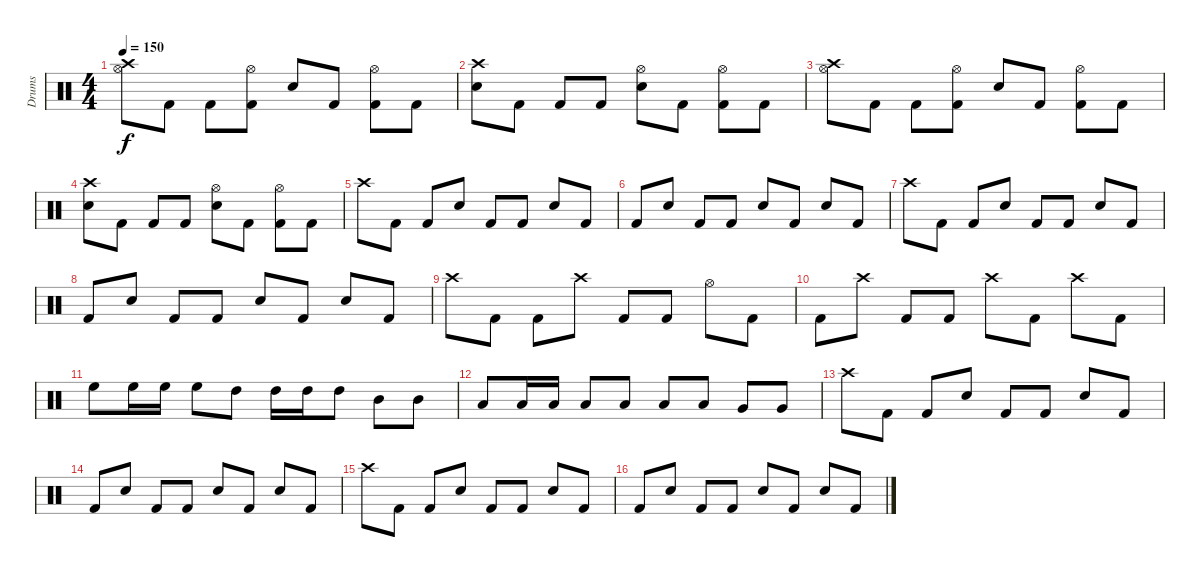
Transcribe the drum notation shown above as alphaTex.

\track ("Drums" "Drums") {instrument percussion}
\staff {score}
\articulation defaults
\ts (4 4)
\tempo 150
\clef neutral
\ks c
("Hi-Hat (open)" "Crash high (hit)").8{dy f} "Kick (hit) 2".8 "Kick (hit) 2".8 ("Hi-Hat (open)" "Kick (hit) 2").8 "Snare (hit) 2".8 "Kick (hit) 2".8 ("Hi-Hat (open)" "Kick (hit) 2").8 "Kick (hit) 2".8 |
("Snare (hit) 2" "Crash high (hit)").8 "Kick (hit) 2".8 "Kick (hit) 2".8 "Kick (hit) 2".8 ("Hi-Hat (open)" "Snare (hit) 2").8 "Kick (hit) 2".8 ("Hi-Hat (open)" "Kick (hit) 2").8 "Kick (hit) 2".8 |
("Hi-Hat (open)" "Crash high (hit)").8 "Kick (hit) 2".8 "Kick (hit) 2".8 ("Hi-Hat (open)" "Kick (hit) 2").8 "Snare (hit) 2".8 "Kick (hit) 2".8 ("Hi-Hat (open)" "Kick (hit) 2").8 "Kick (hit) 2".8 |
("Snare (hit) 2" "Crash high (hit)").8 "Kick (hit) 2".8 "Kick (hit) 2".8 "Kick (hit) 2".8 ("Hi-Hat (open)" "Snare (hit) 2").8 "Kick (hit) 2".8 ("Hi-Hat (open)" "Kick (hit) 2").8 "Kick (hit) 2".8 |
"Crash high (hit)".8 "Kick (hit) 2".8 "Kick (hit) 2".8 "Snare (hit) 2".8 "Kick (hit) 2".8 "Kick (hit) 2".8 "Snare (hit) 2".8 "Kick (hit) 2".8 |
"Kick (hit) 2".8 "Snare (hit) 2".8 "Kick (hit) 2".8 "Kick (hit) 2".8 "Snare (hit) 2".8 "Kick (hit) 2".8 "Snare (hit) 2".8 "Kick (hit) 2".8 |
"Crash high (hit)".8 "Kick (hit) 2".8 "Kick (hit) 2".8 "Snare (hit) 2".8 "Kick (hit) 2".8 "Kick (hit) 2".8 "Snare (hit) 2".8 "Kick (hit) 2".8 |
"Kick (hit) 2".8 "Snare (hit) 2".8 "Kick (hit) 2".8 "Kick (hit) 2".8 "Snare (hit) 2".8 "Kick (hit) 2".8 "Snare (hit) 2".8 "Kick (hit) 2".8 |
"Crash high (hit)".8 "Kick (hit) 2".8 "Kick (hit) 2".8 "Crash high (hit)".8 "Kick (hit) 2".8 "Kick (hit) 2".8 "Hi-Hat (open)".8 "Kick (hit) 2".8 |
"Kick (hit) 2".8 "Crash high (hit)".8 "Kick (hit) 2".8 "Kick (hit) 2".8 "Crash high (hit)".8 "Kick (hit) 2".8 "Crash high (hit)".8 "Kick (hit) 2".8 |
"High Floor Tom (hit)".8 "High Floor Tom (hit)".16 "High Floor Tom (hit)".16 "High Floor Tom (hit)".8 "High Tom (hit)".8 "High Tom (hit)".16 "High Tom (hit)".16 "High Tom (hit)".8 "Mid Tom (hit)".8 "Mid Tom (hit)".8 |
"Low Tom (hit)".8 "Low Tom (hit)".16 "Low Tom (hit)".16 "Low Tom (hit)".8 "Low Tom (hit)".8 "Low Tom (hit)".8 "Low Tom (hit)".8 "Very Low Tom (hit)".8 "Very Low Tom (hit)".8 |
"Crash high (hit)".8 "Kick (hit) 2".8 "Kick (hit) 2".8 "Snare (hit) 2".8 "Kick (hit) 2".8 "Kick (hit) 2".8 "Snare (hit) 2".8 "Kick (hit) 2".8 |
"Kick (hit) 2".8 "Snare (hit) 2".8 "Kick (hit) 2".8 "Kick (hit) 2".8 "Snare (hit) 2".8 "Kick (hit) 2".8 "Snare (hit) 2".8 "Kick (hit) 2".8 |
"Crash high (hit)".8 "Kick (hit) 2".8 "Kick (hit) 2".8 "Snare (hit) 2".8 "Kick (hit) 2".8 "Kick (hit) 2".8 "Snare (hit) 2".8 "Kick (hit) 2".8 |
"Kick (hit) 2".8 "Snare (hit) 2".8 "Kick (hit) 2".8 "Kick (hit) 2".8 "Snare (hit) 2".8 "Kick (hit) 2".8 "Snare (hit) 2".8 "Kick (hit) 2".8
